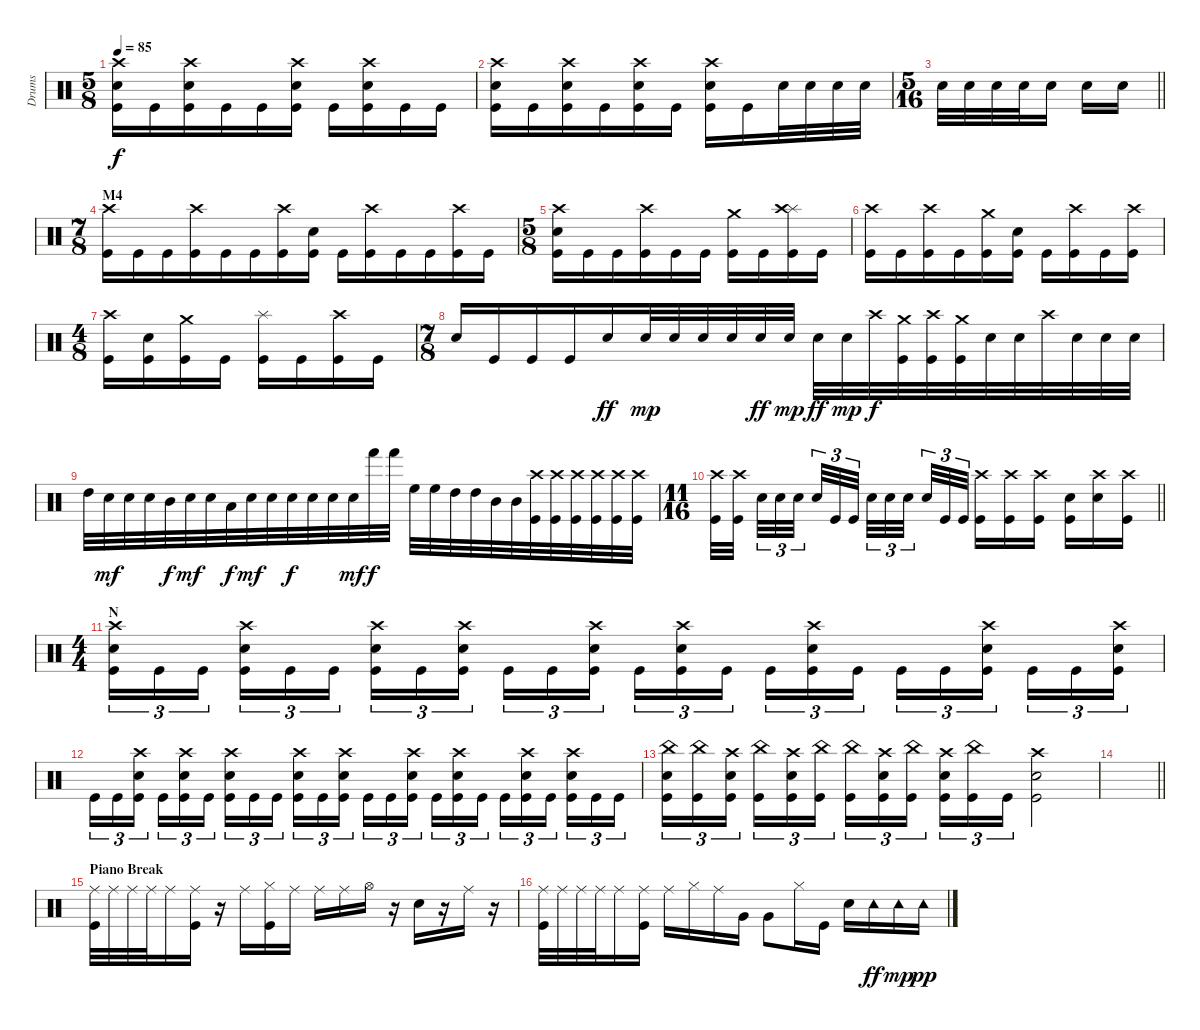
\track ("Drums" "Drums") {instrument percussion}
\staff {score}
\articulation defaults
\ts (5 8)
\tempo 85
\clef neutral
\ks c
("Crash high (hit)" "Snare (hit) 2" "Kick (hit)").16{dy f} "Kick (hit)".16 ("Crash high (hit)" "Snare (hit) 2" "Kick (hit)").16 "Kick (hit)".16 "Kick (hit)".16 ("Crash high (hit)" "Snare (hit) 2" "Kick (hit)").16 "Kick (hit)".16 ("Crash high (hit)" "Snare (hit) 2" "Kick (hit)").16 "Kick (hit)".16 "Kick (hit)".16 |
("Crash high (hit)" "Snare (hit) 2" "Kick (hit)").16 "Kick (hit)".16 ("Crash high (hit)" "Snare (hit) 2" "Kick (hit)").16 "Kick (hit)".16 ("Crash high (hit)" "Snare (hit) 2" "Kick (hit)").16 "Kick (hit)".16 ("Crash high (hit)" "Snare (hit) 2" "Kick (hit)").16 "Kick (hit)".16 "Snare (hit) 2".32 "Snare (hit) 2".32 "Snare (hit) 2".32 "Snare (hit) 2".32 |
\ts (5 16)
\barLineRight lightlight "Snare (hit) 2".32 "Snare (hit) 2".32 "Snare (hit) 2".32 "Snare (hit) 2".32 "Snare (hit) 2".16 "Snare (hit) 2".16 "Snare (hit) 2".16
|
\ts (7 8)
\section ("" "M4")
("Crash high (hit)" "Kick (hit)").16 "Kick (hit)".16 "Kick (hit)".16 ("Kick (hit)" "Crash high (hit)").16 "Kick (hit)".16 "Kick (hit)".16 ("Crash high (hit)" "Kick (hit)").16 ("Snare (hit) 2" "Kick (hit)").16 "Kick (hit)".16 ("Crash high (hit)" "Kick (hit)").16 "Kick (hit)".16 "Kick (hit)".16 ("Crash high (hit)" "Kick (hit)").16 "Kick (hit)".16 |
\ts (5 8)
("Snare (hit) 2" "Crash high (hit)" "Kick (hit)").16 "Kick (hit)".16 "Kick (hit)".16 ("Crash high (hit)" "Kick (hit)").16 "Kick (hit)".16 "Kick (hit)".16 ("Crash medium (hit)" "Kick (hit)").16 "Kick (hit)".16 ("Kick (hit)" "Splash (hit)" "Crash high (hit)").16 "Kick (hit)".16 |
("Crash high (hit)" "Kick (hit)").16 "Kick (hit)".16 ("Crash high (hit)" "Kick (hit)").16 "Kick (hit)".16 ("Crash medium (hit)" "Kick (hit)").16 ("Snare (hit) 2" "Kick (hit)").16 "Kick (hit)".16 ("Crash high (hit)" "Kick (hit)").16 "Kick (hit)".16 ("Crash high (hit)" "Kick (hit)").16 |
\ts (4 8)
("Crash high (hit)" "Kick (hit)").16 ("Snare (hit) 2" "Kick (hit)").16 ("Crash medium (hit)" "Kick (hit)").16 "Kick (hit)".16 ("Splash (hit)" "Kick (hit)").16 "Kick (hit)".16 ("Crash high (hit)" "Kick (hit)").16 "Kick (hit)".16 |
\ts (7 8)
"Snare (hit) 2".16 "Kick (hit)".16 "Kick (hit)".16 "Kick (hit)".16 "Snare (hit) 2".16{dy ff} "Snare (hit) 2".32{dy mp} "Snare (hit) 2".32 "Snare (hit) 2".32 "Snare (hit) 2".32 "Snare (hit) 2".32{dy ff} "Snare (hit) 2".32{dy mp} "Snare (hit) 2".32{dy ff} "Snare (hit) 2".32{dy mp} "Crash high (hit)".32{dy f} ("Crash medium (hit)" "Kick (hit)").32 ("Crash high (hit)" "Kick (hit)").32 ("Crash medium (hit)" "Kick (hit)").32 "Snare (hit) 2".32 "Snare (hit) 2".32 "Crash high (hit)".32 "Snare (hit) 2".32 "Snare (hit) 2".32 "Snare (hit) 2".32 |
"High Tom (hit)".32 "Snare (hit) 2".32{dy mf} "Snare (hit) 2".32 "Snare (hit) 2".32 "Mid Tom (hit)".32{dy f} "Snare (hit) 2".32{dy mf} "Snare (hit) 2".32 "Low Tom (hit)".32{dy f} "Snare (hit) 2".32{dy mf} "Snare (hit) 2".32 "Snare (hit) 2".32{dy f} "Snare (hit) 2".32 "Snare (hit) 2".32 "Snare (hit) 2".32{dy mf} "Hand (hit)".32{dy f} "Hand (hit)".32 "High Floor Tom (hit)".32 "High Floor Tom (hit)".32 "High Tom (hit)".32 "High Tom (hit)".32 "Mid Tom (hit)".32 "Mid Tom (hit)".32 ("Crash high (hit)" "Kick (hit)").32 ("Crash high (hit)" "Kick (hit)").32 ("Crash high (hit)" "Kick (hit)").32 ("Crash high (hit)" "Kick (hit)").32 ("Crash high (hit)" "Kick (hit)").32 ("Crash high (hit)" "Kick (hit)").32 |
\ts (11 16)
\barLineRight lightlight
("Crash high (hit)" "Kick (hit)").32 ("Crash high (hit)" "Kick (hit)").32 "Snare (hit) 2".32{tu (3 2)} "Snare (hit) 2".32{tu (3 2)} "Snare (hit) 2".32{tu (3 2)} "Snare (hit) 2".32{tu (3 2)} "Kick (hit)".32{tu (3 2)} "Kick (hit)".32{tu (3 2)} "Snare (hit) 2".32{tu (3 2)} "Snare (hit) 2".32{tu (3 2)} "Snare (hit) 2".32{tu (3 2)} "Snare (hit) 2".32{tu (3 2)} "Kick (hit)".32{tu (3 2)} "Kick (hit)".32{tu (3 2)} ("Crash high (hit)" "Kick (hit)").16 ("Crash high (hit)" "Kick (hit)").16 ("Crash high (hit)" "Kick (hit)").16 ("Snare (hit) 2" "Kick (hit)").16 ("Crash high (hit)" "Snare (hit) 2").16 ("Crash high (hit)" "Kick (hit)").16 |
\ts (4 4)
\section ("" "N")
("Kick (hit)" "Snare (hit) 2" "Crash high (hit)").16{tu (3 2)} "Kick (hit)".16{tu (3 2)} "Kick (hit)".16{tu (3 2) beam splitsecondary} ("Kick (hit)" "Crash high (hit)" "Snare (hit) 2").16{tu (3 2)} "Kick (hit)".16{tu (3 2)} "Kick (hit)".16{tu (3 2)} ("Kick (hit)" "Crash high (hit)" "Snare (hit) 2").16{tu (3 2)} "Kick (hit)".16{tu (3 2)} ("Kick (hit)" "Crash high (hit)" "Snare (hit) 2").16{tu (3 2) beam splitsecondary} "Kick (hit)".16{tu (3 2)} "Kick (hit)".16{tu (3 2)} ("Snare (hit) 2" "Crash high (hit)" "Kick (hit)").16{tu (3 2)} "Kick (hit)".16{tu (3 2)} ("Kick (hit)" "Crash high (hit)" "Snare (hit) 2").16{tu (3 2)} "Kick (hit)".16{tu (3 2) beam splitsecondary} "Kick (hit)".16{tu (3 2)} ("Crash high (hit)" "Snare (hit) 2" "Kick (hit)").16{tu (3 2)} "Kick (hit)".16{tu (3 2)} "Kick (hit)".16{tu (3 2)} "Kick (hit)".16{tu (3 2)} ("Crash high (hit)" "Snare (hit) 2" "Kick (hit)").16{tu (3 2) beam splitsecondary} "Kick (hit)".16{tu (3 2)} "Kick (hit)".16{tu (3 2)} ("Crash high (hit)" "Snare (hit) 2" "Kick (hit)").16{tu (3 2)} |
"Kick (hit)".16{tu (3 2)} "Kick (hit)".16{tu (3 2)} ("Crash high (hit)" "Snare (hit) 2" "Kick (hit)").16{tu (3 2) beam splitsecondary} "Kick (hit)".16{tu (3 2)} ("Crash high (hit)" "Snare (hit) 2" "Kick (hit)").16{tu (3 2)} "Kick (hit)".16{tu (3 2)} ("Crash high (hit)" "Snare (hit) 2" "Kick (hit)").16{tu (3 2)} "Kick (hit)".16{tu (3 2)} "Kick (hit)".16{tu (3 2) beam splitsecondary} ("Crash high (hit)" "Snare (hit) 2" "Kick (hit)").16{tu (3 2)} "Kick (hit)".16{tu (3 2)} ("Crash high (hit)" "Snare (hit) 2" "Kick (hit)").16{tu (3 2)} "Kick (hit)".16{tu (3 2)} "Kick (hit)".16{tu (3 2)} ("Crash high (hit)" "Snare (hit) 2" "Kick (hit)").16{tu (3 2) beam splitsecondary} "Kick (hit)".16{tu (3 2)} ("Crash high (hit)" "Snare (hit) 2" "Kick (hit)").16{tu (3 2)} "Kick (hit)".16{tu (3 2)} "Kick (hit)".16{tu (3 2)} ("Crash high (hit)" "Snare (hit) 2" "Kick (hit)").16{tu (3 2)} "Kick (hit)".16{tu (3 2) beam splitsecondary} ("Crash high (hit)" "Snare (hit) 2" "Kick (hit)").16{tu (3 2)} "Kick (hit)".16{tu (3 2)} "Kick (hit)".16{tu (3 2)} |
("China (hit)" "Snare (hit) 2" "Kick (hit)").16{tu (3 2)} ("China (hit)" "Kick (hit)").16{tu (3 2)} ("Crash high (hit)" "Snare (hit) 2" "Kick (hit)").16{tu (3 2) beam splitsecondary} ("China (hit)" "Kick (hit)").16{tu (3 2)} ("Crash high (hit)" "Snare (hit) 2" "Kick (hit)").16{tu (3 2)} ("China (hit)" "Kick (hit)").16{tu (3 2)} ("China (hit)" "Kick (hit)").16{tu (3 2)} ("Crash high (hit)" "Snare (hit) 2" "Kick (hit)").16{tu (3 2)} ("China (hit)" "Kick (hit)").16{tu (3 2) beam splitsecondary} ("Crash high (hit)" "Snare (hit) 2" "Kick (hit)").16{tu (3 2)} ("China (hit)" "Kick (hit)").16{tu (3 2)} "Kick (hit)".16{tu (3 2)} ("Crash high (hit)" "Snare (hit) 2" "Kick (hit)").2 |
\barLineRight lightlight
|
\section ("" "Piano Break")
("Ride (middle)" "Kick (hit)").32 "Ride (middle)".32 "Ride (middle)".32 "Ride (middle)".32 "Ride (middle)".16 ("Ride (middle)" "Kick (hit)").16 r.16 "Ride (middle)".16 ("Hi-Hat (closed)" "Kick (hit)").16 "Ride (middle)".16 "Ride (middle)".16 "Ride (middle)".16 "Hi-Hat (open)".16 r.16 "Snare (hit) 2".16 r.16 "Ride (middle)".16 r.16 |
("Ride (middle)" "Kick (hit)").32 "Ride (middle)".32 "Ride (middle)".32 "Ride (middle)".32 "Ride (middle)".16 ("Ride (middle)" "Kick (hit)").16 "Ride (middle)".16 "Hi-Hat (closed)".16 "Ride (middle)".16 "Very Low Tom (hit)".16 "Very Low Tom (hit)".8 "Hi-Hat (closed)".16 "Kick (hit)".16 "Snare (hit) 2".16 "Tambourine (hit)".16{dy ff} "Tambourine (hit)".16{dy mp} "Tambourine (hit)".16{dy pp}
